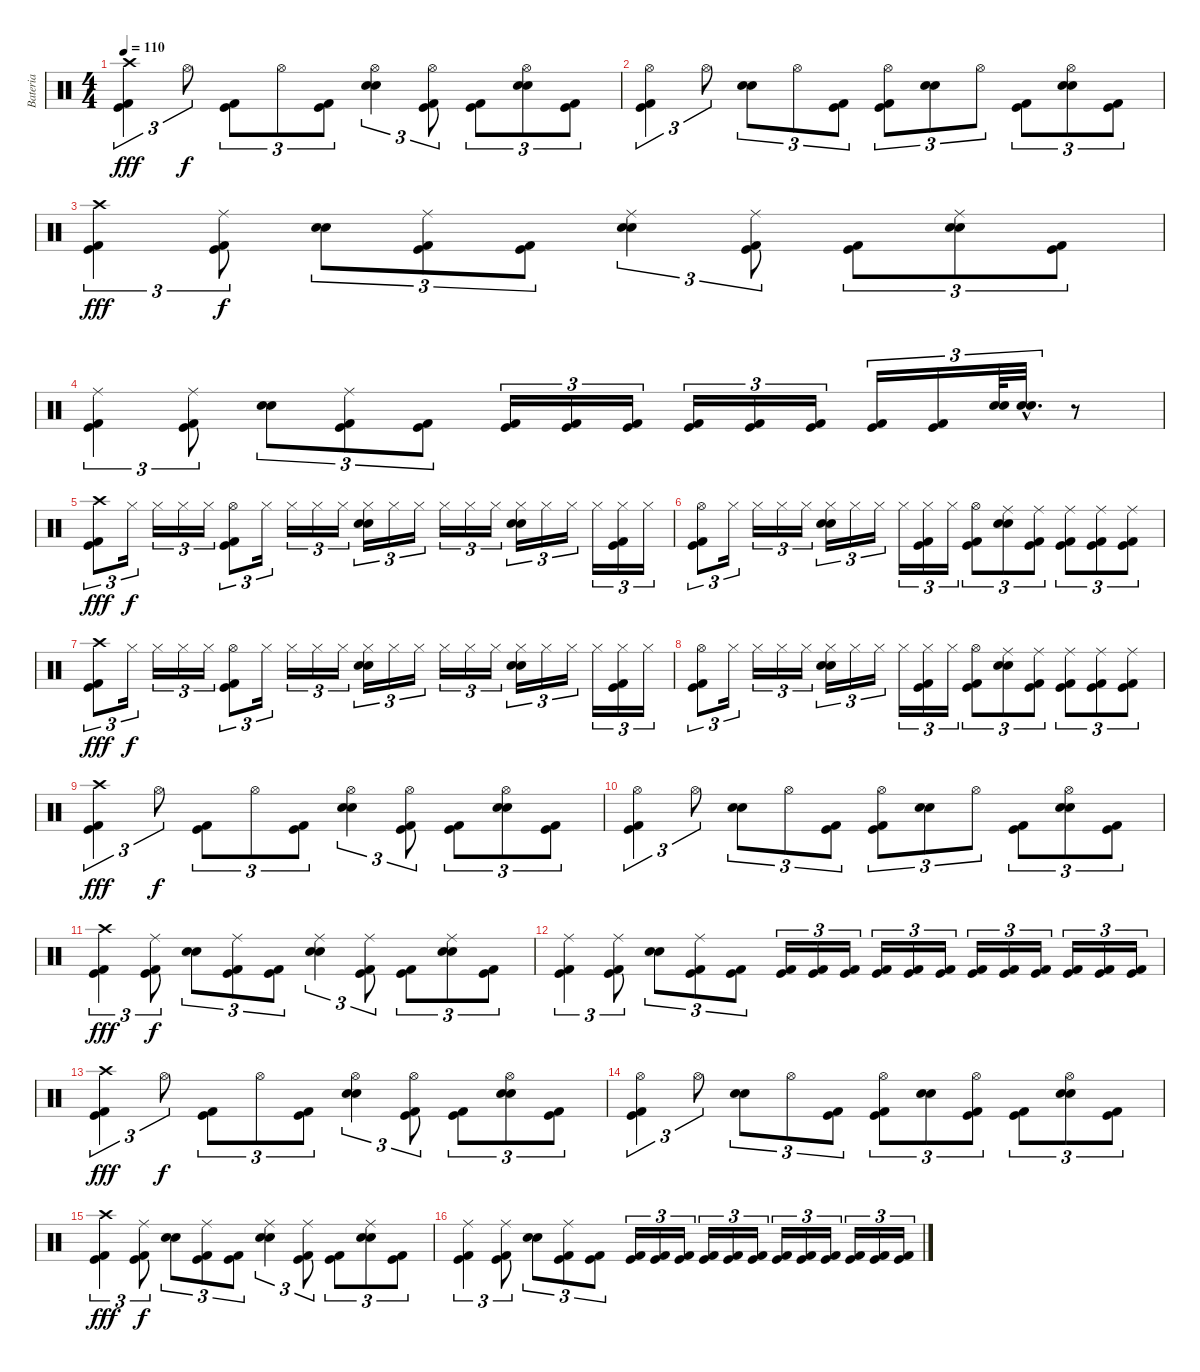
\track ("Bateria" "Bateria") {instrument percussion}
\staff {score}
\articulation defaults
\ts (4 4)
\tempo 110
\clef neutral
\ks c
("Crash high (hit)" "Kick (hit) 2" "Kick (hit)").4{tu (3 2) dy fff} "Hi-Hat (open)".8{tu (3 2) dy f} ("Kick (hit) 2" "Kick (hit)").8{tu (3 2)} "Hi-Hat (open)".8{tu (3 2)} ("Kick (hit) 2" "Kick (hit)").8{tu (3 2)} ("Hi-Hat (open)" "Electric Snare (hit)" "Snare (hit) 2").4{tu (3 2)} ("Hi-Hat (open)" "Kick (hit) 2" "Kick (hit)").8{tu (3 2)} ("Kick (hit) 2" "Kick (hit)").8{tu (3 2)} ("Hi-Hat (open)" "Electric Snare (hit)" "Snare (hit) 2").8{tu (3 2)} ("Kick (hit) 2" "Kick (hit)").8{tu (3 2)} |
("Hi-Hat (open)" "Kick (hit) 2" "Kick (hit)").4{tu (3 2)} "Hi-Hat (open)".8{tu (3 2)} ("Electric Snare (hit)" "Snare (hit) 2").8{tu (3 2)} "Hi-Hat (open)".8{tu (3 2)} ("Kick (hit) 2" "Kick (hit)").8{tu (3 2)} ("Hi-Hat (open)" "Kick (hit) 2" "Kick (hit)").8{tu (3 2)} ("Electric Snare (hit)" "Snare (hit) 2").8{tu (3 2)} "Hi-Hat (open)".8{tu (3 2)} ("Kick (hit) 2" "Kick (hit)").8{tu (3 2)} ("Hi-Hat (open)" "Electric Snare (hit)" "Snare (hit) 2").8{tu (3 2)} ("Kick (hit) 2" "Kick (hit)").8{tu (3 2)} |
("Crash high (hit)" "Kick (hit) 2" "Kick (hit)").4{tu (3 2) dy fff} ("Ride (middle)" "Kick (hit) 2" "Kick (hit)").8{tu (3 2) dy f} ("Electric Snare (hit)" "Snare (hit) 2").8{tu (3 2)} ("Ride (middle)" "Kick (hit) 2" "Kick (hit)").8{tu (3 2)} ("Kick (hit) 2" "Kick (hit)").8{tu (3 2)} ("Ride (middle)" "Electric Snare (hit)" "Snare (hit) 2").4{tu (3 2)} ("Ride (middle)" "Kick (hit) 2" "Kick (hit)").8{tu (3 2)} ("Kick (hit) 2" "Kick (hit)").8{tu (3 2)} ("Ride (middle)" "Electric Snare (hit)" "Snare (hit) 2").8{tu (3 2)} ("Kick (hit) 2" "Kick (hit)").8{tu (3 2)} |
("Ride (middle)" "Kick (hit) 2" "Kick (hit)").4{tu (3 2)} ("Ride (middle)" "Kick (hit) 2" "Kick (hit)").8{tu (3 2)} ("Electric Snare (hit)" "Snare (hit) 2").8{tu (3 2)} ("Ride (middle)" "Kick (hit) 2" "Kick (hit)").8{tu (3 2)} ("Kick (hit) 2" "Kick (hit)").8{tu (3 2)} ("Kick (hit) 2" "Kick (hit)").16{tu (3 2)} ("Kick (hit) 2" "Kick (hit)").16{tu (3 2)} ("Kick (hit) 2" "Kick (hit)").16{tu (3 2)} ("Kick (hit) 2" "Kick (hit)").16{tu (3 2)} ("Kick (hit) 2" "Kick (hit)").16{tu (3 2)} ("Kick (hit) 2" "Kick (hit)").16{tu (3 2)} ("Kick (hit) 2" "Kick (hit)").16{tu (3 2)} ("Kick (hit) 2" "Kick (hit)").16{tu (3 2)} ("Electric Snare (hit)" "Snare (hit) 2").64{tu (3 2)} ("Electric Snare (hit)"{hac} "Snare (hit) 2"{hac}).32{d tu (3 2)} r.8 |
("Crash high (hit)" "Kick (hit) 2" "Kick (hit)").8{tu (3 2) dy fff} "Hi-Hat (closed)".16{tu (3 2) dy f} "Hi-Hat (closed)".16{tu (3 2)} "Hi-Hat (closed)".16{tu (3 2)} "Hi-Hat (closed)".16{tu (3 2)} ("Hi-Hat (open)" "Kick (hit) 2" "Kick (hit)").8{tu (3 2)} "Hi-Hat (closed)".16{tu (3 2)} "Hi-Hat (closed)".16{tu (3 2)} "Hi-Hat (closed)".16{tu (3 2)} "Hi-Hat (closed)".16{tu (3 2)} ("Hi-Hat (closed)" "Electric Snare (hit)" "Snare (hit) 2").16{tu (3 2)} "Hi-Hat (closed)".16{tu (3 2)} "Hi-Hat (closed)".16{tu (3 2)} "Hi-Hat (closed)".16{tu (3 2)} "Hi-Hat (closed)".16{tu (3 2)} "Hi-Hat (closed)".16{tu (3 2)} ("Hi-Hat (closed)" "Electric Snare (hit)" "Snare (hit) 2").16{tu (3 2)} "Hi-Hat (closed)".16{tu (3 2)} "Hi-Hat (closed)".16{tu (3 2)} "Hi-Hat (closed)".16{tu (3 2)} ("Hi-Hat (closed)" "Kick (hit) 2" "Kick (hit)").16{tu (3 2)} "Hi-Hat (closed)".16{tu (3 2)} |
("Hi-Hat (open)" "Kick (hit) 2" "Kick (hit)").8{tu (3 2)} "Hi-Hat (closed)".16{tu (3 2)} "Hi-Hat (closed)".16{tu (3 2)} "Hi-Hat (closed)".16{tu (3 2)} "Hi-Hat (closed)".16{tu (3 2)} ("Hi-Hat (closed)" "Electric Snare (hit)" "Snare (hit) 2").16{tu (3 2)} "Hi-Hat (closed)".16{tu (3 2)} "Hi-Hat (closed)".16{tu (3 2)} "Hi-Hat (closed)".16{tu (3 2)} ("Hi-Hat (closed)" "Kick (hit) 2" "Kick (hit)").16{tu (3 2)} "Hi-Hat (closed)".16{tu (3 2)} ("Hi-Hat (open)" "Kick (hit) 2" "Kick (hit)").8{tu (3 2)} ("Ride (middle)" "Electric Snare (hit)" "Snare (hit) 2").8{tu (3 2)} ("Ride (middle)" "Kick (hit) 2" "Kick (hit)").8{tu (3 2)} ("Ride (middle)" "Kick (hit) 2" "Kick (hit)").8{tu (3 2)} ("Ride (middle)" "Kick (hit) 2" "Kick (hit)").8{tu (3 2)} ("Ride (middle)" "Kick (hit) 2" "Kick (hit)").8{tu (3 2)} |
("Crash high (hit)" "Kick (hit) 2" "Kick (hit)").8{tu (3 2) dy fff} "Hi-Hat (closed)".16{tu (3 2) dy f} "Hi-Hat (closed)".16{tu (3 2)} "Hi-Hat (closed)".16{tu (3 2)} "Hi-Hat (closed)".16{tu (3 2)} ("Hi-Hat (open)" "Kick (hit) 2" "Kick (hit)").8{tu (3 2)} "Hi-Hat (closed)".16{tu (3 2)} "Hi-Hat (closed)".16{tu (3 2)} "Hi-Hat (closed)".16{tu (3 2)} "Hi-Hat (closed)".16{tu (3 2)} ("Hi-Hat (closed)" "Electric Snare (hit)" "Snare (hit) 2").16{tu (3 2)} "Hi-Hat (closed)".16{tu (3 2)} "Hi-Hat (closed)".16{tu (3 2)} "Hi-Hat (closed)".16{tu (3 2)} "Hi-Hat (closed)".16{tu (3 2)} "Hi-Hat (closed)".16{tu (3 2)} ("Hi-Hat (closed)" "Electric Snare (hit)" "Snare (hit) 2").16{tu (3 2)} "Hi-Hat (closed)".16{tu (3 2)} "Hi-Hat (closed)".16{tu (3 2)} "Hi-Hat (closed)".16{tu (3 2)} ("Hi-Hat (closed)" "Kick (hit) 2" "Kick (hit)").16{tu (3 2)} "Hi-Hat (closed)".16{tu (3 2)} |
("Hi-Hat (open)" "Kick (hit) 2" "Kick (hit)").8{tu (3 2)} "Hi-Hat (closed)".16{tu (3 2)} "Hi-Hat (closed)".16{tu (3 2)} "Hi-Hat (closed)".16{tu (3 2)} "Hi-Hat (closed)".16{tu (3 2)} ("Hi-Hat (closed)" "Electric Snare (hit)" "Snare (hit) 2").16{tu (3 2)} "Hi-Hat (closed)".16{tu (3 2)} "Hi-Hat (closed)".16{tu (3 2)} "Hi-Hat (closed)".16{tu (3 2)} ("Hi-Hat (closed)" "Kick (hit) 2" "Kick (hit)").16{tu (3 2)} "Hi-Hat (closed)".16{tu (3 2)} ("Hi-Hat (open)" "Kick (hit) 2" "Kick (hit)").8{tu (3 2)} ("Ride (middle)" "Electric Snare (hit)" "Snare (hit) 2").8{tu (3 2)} ("Ride (middle)" "Kick (hit) 2" "Kick (hit)").8{tu (3 2)} ("Ride (middle)" "Kick (hit) 2" "Kick (hit)").8{tu (3 2)} ("Ride (middle)" "Kick (hit) 2" "Kick (hit)").8{tu (3 2)} ("Ride (middle)" "Kick (hit) 2" "Kick (hit)").8{tu (3 2)} |
("Crash high (hit)" "Kick (hit) 2" "Kick (hit)").4{tu (3 2) dy fff} "Hi-Hat (open)".8{tu (3 2) dy f} ("Kick (hit) 2" "Kick (hit)").8{tu (3 2)} "Hi-Hat (open)".8{tu (3 2)} ("Kick (hit) 2" "Kick (hit)").8{tu (3 2)} ("Hi-Hat (open)" "Electric Snare (hit)" "Snare (hit) 2").4{tu (3 2)} ("Hi-Hat (open)" "Kick (hit) 2" "Kick (hit)").8{tu (3 2)} ("Kick (hit) 2" "Kick (hit)").8{tu (3 2)} ("Hi-Hat (open)" "Electric Snare (hit)" "Snare (hit) 2").8{tu (3 2)} ("Kick (hit) 2" "Kick (hit)").8{tu (3 2)} |
("Hi-Hat (open)" "Kick (hit) 2" "Kick (hit)").4{tu (3 2)} "Hi-Hat (open)".8{tu (3 2)} ("Electric Snare (hit)" "Snare (hit) 2").8{tu (3 2)} "Hi-Hat (open)".8{tu (3 2)} ("Kick (hit) 2" "Kick (hit)").8{tu (3 2)} ("Hi-Hat (open)" "Kick (hit) 2" "Kick (hit)").8{tu (3 2)} ("Electric Snare (hit)" "Snare (hit) 2").8{tu (3 2)} "Hi-Hat (open)".8{tu (3 2)} ("Kick (hit) 2" "Kick (hit)").8{tu (3 2)} ("Hi-Hat (open)" "Electric Snare (hit)" "Snare (hit) 2").8{tu (3 2)} ("Kick (hit) 2" "Kick (hit)").8{tu (3 2)} |
("Crash high (hit)" "Kick (hit) 2" "Kick (hit)").4{tu (3 2) dy fff} ("Ride (middle)" "Kick (hit) 2" "Kick (hit)").8{tu (3 2) dy f} ("Electric Snare (hit)" "Snare (hit) 2").8{tu (3 2)} ("Ride (middle)" "Kick (hit) 2" "Kick (hit)").8{tu (3 2)} ("Kick (hit) 2" "Kick (hit)").8{tu (3 2)} ("Ride (middle)" "Electric Snare (hit)" "Snare (hit) 2").4{tu (3 2)} ("Ride (middle)" "Kick (hit) 2" "Kick (hit)").8{tu (3 2)} ("Kick (hit) 2" "Kick (hit)").8{tu (3 2)} ("Ride (middle)" "Electric Snare (hit)" "Snare (hit) 2").8{tu (3 2)} ("Kick (hit) 2" "Kick (hit)").8{tu (3 2)} |
("Ride (middle)" "Kick (hit) 2" "Kick (hit)").4{tu (3 2)} ("Ride (middle)" "Kick (hit) 2" "Kick (hit)").8{tu (3 2)} ("Electric Snare (hit)" "Snare (hit) 2").8{tu (3 2)} ("Ride (middle)" "Kick (hit) 2" "Kick (hit)").8{tu (3 2)} ("Kick (hit) 2" "Kick (hit)").8{tu (3 2)} ("Kick (hit) 2" "Kick (hit)").16{tu (3 2)} ("Kick (hit) 2" "Kick (hit)").16{tu (3 2)} ("Kick (hit) 2" "Kick (hit)").16{tu (3 2)} ("Kick (hit) 2" "Kick (hit)").16{tu (3 2)} ("Kick (hit) 2" "Kick (hit)").16{tu (3 2)} ("Kick (hit) 2" "Kick (hit)").16{tu (3 2)} ("Kick (hit) 2" "Kick (hit)").16{tu (3 2)} ("Kick (hit) 2" "Kick (hit)").16{tu (3 2)} ("Kick (hit) 2" "Kick (hit)").16{tu (3 2)} ("Kick (hit) 2" "Kick (hit)").16{tu (3 2)} ("Kick (hit) 2" "Kick (hit)").16{tu (3 2)} ("Kick (hit) 2" "Kick (hit)").16{tu (3 2)} |
("Crash high (hit)" "Kick (hit) 2" "Kick (hit)").4{tu (3 2) dy fff} "Hi-Hat (open)".8{tu (3 2) dy f} ("Kick (hit) 2" "Kick (hit)").8{tu (3 2)} "Hi-Hat (open)".8{tu (3 2)} ("Kick (hit) 2" "Kick (hit)").8{tu (3 2)} ("Hi-Hat (open)" "Electric Snare (hit)" "Snare (hit) 2").4{tu (3 2)} ("Hi-Hat (open)" "Kick (hit) 2" "Kick (hit)").8{tu (3 2)} ("Kick (hit) 2" "Kick (hit)").8{tu (3 2)} ("Hi-Hat (open)" "Electric Snare (hit)" "Snare (hit) 2").8{tu (3 2)} ("Kick (hit) 2" "Kick (hit)").8{tu (3 2)} |
("Hi-Hat (open)" "Kick (hit) 2" "Kick (hit)").4{tu (3 2)} "Hi-Hat (open)".8{tu (3 2)} ("Electric Snare (hit)" "Snare (hit) 2").8{tu (3 2)} "Hi-Hat (open)".8{tu (3 2)} ("Kick (hit) 2" "Kick (hit)").8{tu (3 2)} ("Hi-Hat (open)" "Kick (hit) 2" "Kick (hit)").8{tu (3 2)} ("Electric Snare (hit)" "Snare (hit) 2").8{tu (3 2)} ("Hi-Hat (open)" "Kick (hit) 2" "Kick (hit)").8{tu (3 2)} ("Kick (hit) 2" "Kick (hit)").8{tu (3 2)} ("Hi-Hat (open)" "Electric Snare (hit)" "Snare (hit) 2").8{tu (3 2)} ("Kick (hit) 2" "Kick (hit)").8{tu (3 2)} |
("Crash high (hit)" "Kick (hit) 2" "Kick (hit)").4{tu (3 2) dy fff} ("Ride (middle)" "Kick (hit) 2" "Kick (hit)").8{tu (3 2) dy f} ("Electric Snare (hit)" "Snare (hit) 2").8{tu (3 2)} ("Ride (middle)" "Kick (hit) 2" "Kick (hit)").8{tu (3 2)} ("Kick (hit) 2" "Kick (hit)").8{tu (3 2)} ("Ride (middle)" "Electric Snare (hit)" "Snare (hit) 2").4{tu (3 2)} ("Ride (middle)" "Kick (hit) 2" "Kick (hit)").8{tu (3 2)} ("Kick (hit) 2" "Kick (hit)").8{tu (3 2)} ("Ride (middle)" "Electric Snare (hit)" "Snare (hit) 2").8{tu (3 2)} ("Kick (hit) 2" "Kick (hit)").8{tu (3 2)} |
("Ride (middle)" "Kick (hit) 2" "Kick (hit)").4{tu (3 2)} ("Ride (middle)" "Kick (hit) 2" "Kick (hit)").8{tu (3 2)} ("Electric Snare (hit)" "Snare (hit) 2").8{tu (3 2)} ("Ride (middle)" "Kick (hit) 2" "Kick (hit)").8{tu (3 2)} ("Kick (hit) 2" "Kick (hit)").8{tu (3 2)} ("Kick (hit) 2" "Kick (hit)").16{tu (3 2)} ("Kick (hit) 2" "Kick (hit)").16{tu (3 2)} ("Kick (hit) 2" "Kick (hit)").16{tu (3 2)} ("Kick (hit) 2" "Kick (hit)").16{tu (3 2)} ("Kick (hit) 2" "Kick (hit)").16{tu (3 2)} ("Kick (hit) 2" "Kick (hit)").16{tu (3 2)} ("Kick (hit) 2" "Kick (hit)").16{tu (3 2)} ("Kick (hit) 2" "Kick (hit)").16{tu (3 2)} ("Kick (hit) 2" "Kick (hit)").16{tu (3 2)} ("Kick (hit) 2" "Kick (hit)").16{tu (3 2)} ("Kick (hit) 2" "Kick (hit)").16{tu (3 2)} ("Kick (hit) 2" "Kick (hit)").16{tu (3 2)}
